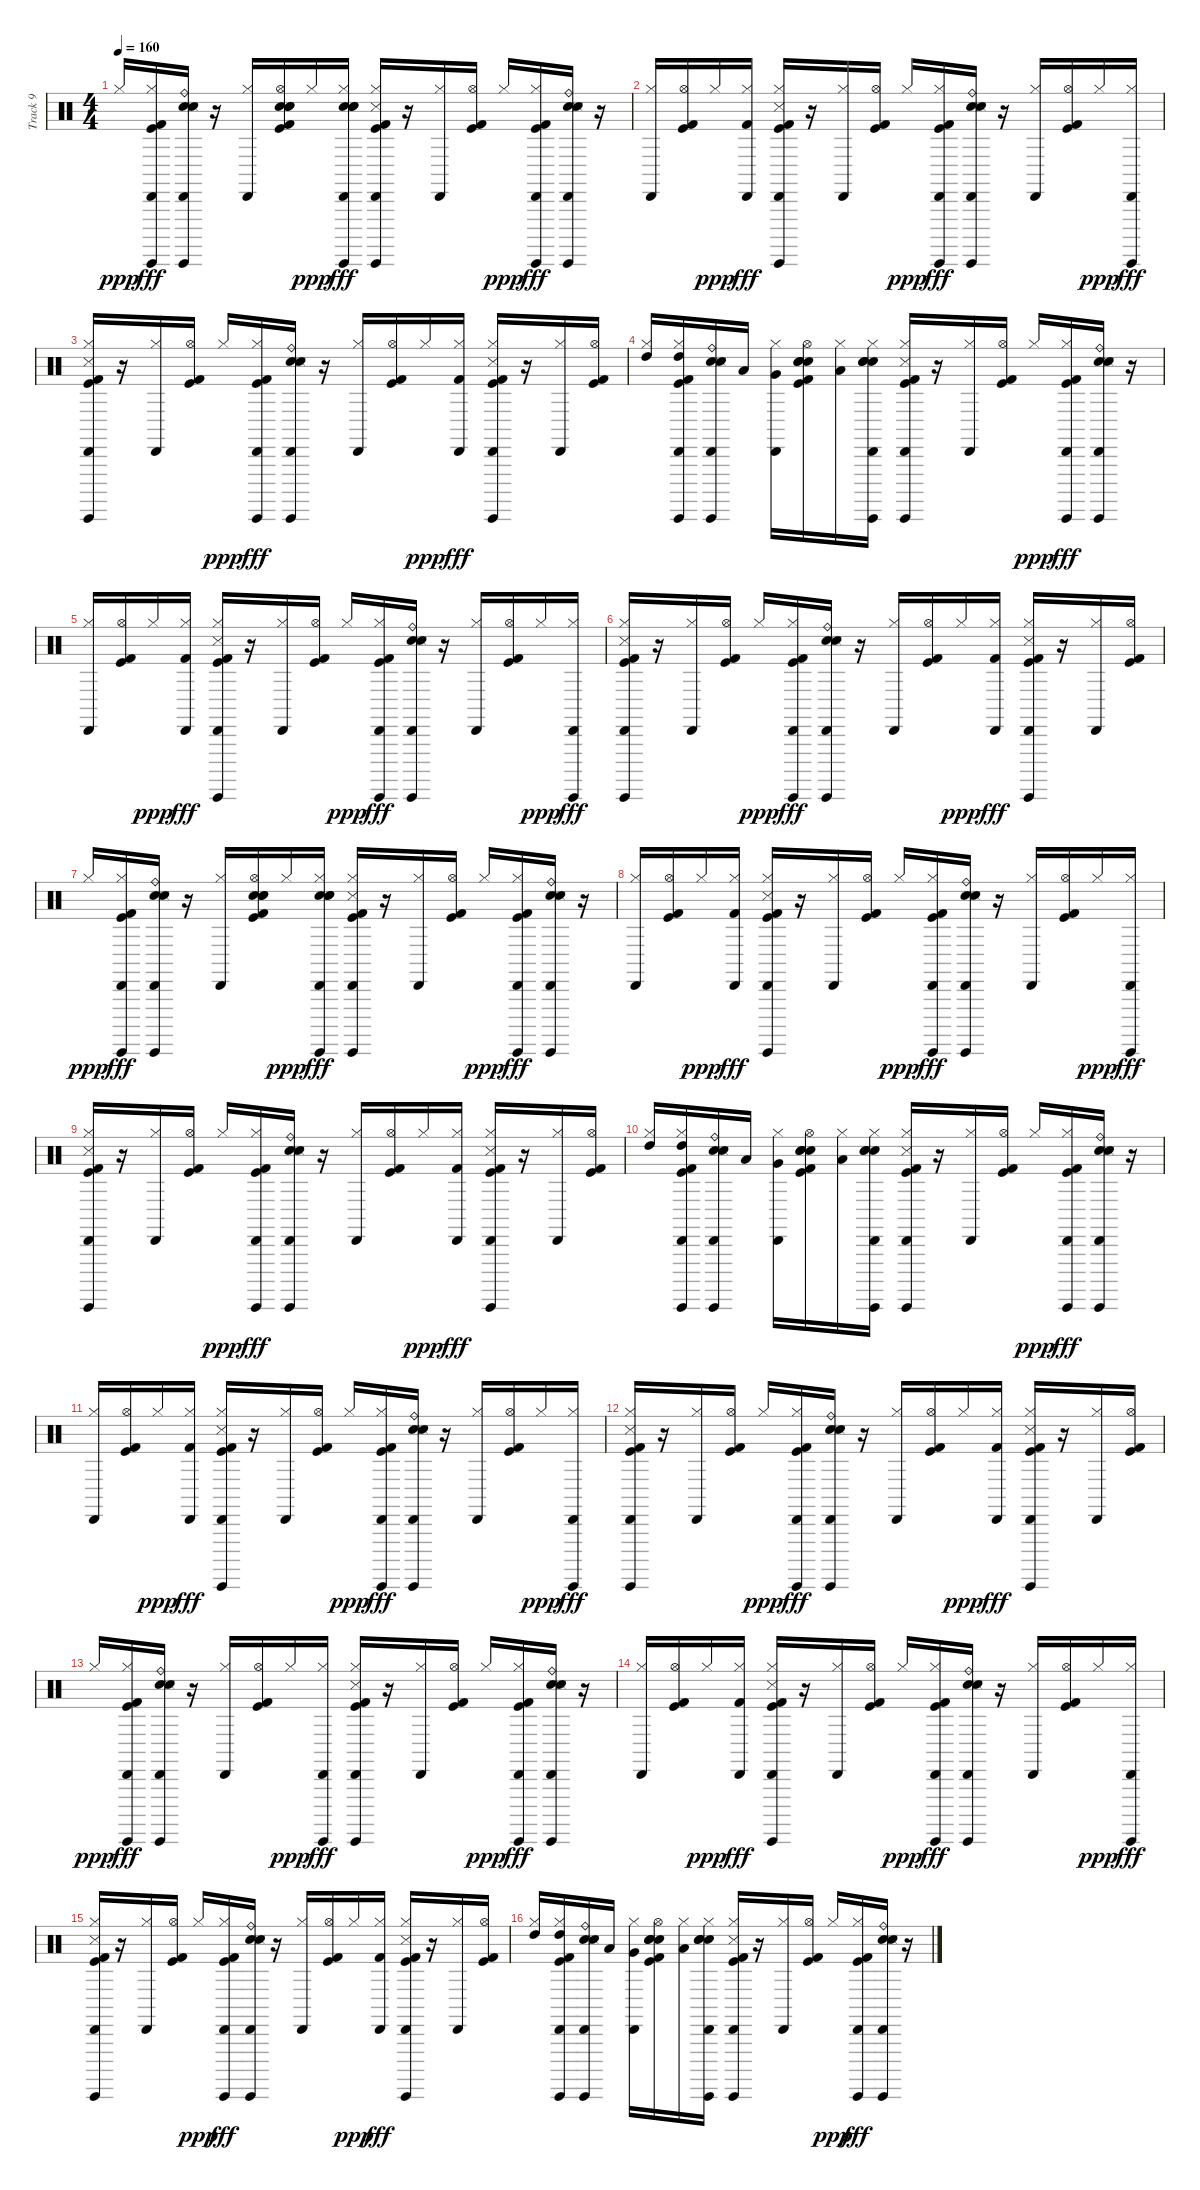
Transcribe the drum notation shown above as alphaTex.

\track ("Track 9" "Track 9") {instrument percussion}
\staff {score}
\articulation defaults
\ts (4 4)
\tempo 160
\clef neutral
\ks c "Hi-Hat (closed)".16{dy ppp}
("Hi-Hat (closed)" "Cabasa (hit)" "Kick (hit) 2" "Kick (hit)" "Guiro (hit)").16{dy fff} ("Electric Snare (hit)" "Snare (hit) 2" "Cabasa (hit)" "Snare (side stick) 3" "Ride (bell)" "Guiro (hit)").16 r.16 ("Hi-Hat (closed)" "Cabasa (hit)").16 ("Hi-Hat (open)" "Kick (hit) 2" "Kick (hit)" "Electric Snare (hit)" "Snare (hit) 2" "Hand Clap (hit)").16 "Hi-Hat (closed)".16{dy ppp} ("Hi-Hat (closed)" "Cabasa (hit)" "Guiro (hit)" "Electric Snare (hit)" "Snare (hit) 2" "Hand Clap (hit)").16{dy fff} ("Hi-Hat (closed)" "Cabasa (hit)" "Snare (side stick) 3" "Kick (hit) 2" "Kick (hit)" "Guiro (hit)").16 r.16 ("Hi-Hat (closed)" "Cabasa (hit)").16 ("Hi-Hat (open)" "Kick (hit) 2" "Kick (hit)").16 "Hi-Hat (closed)".16{dy ppp} ("Hi-Hat (closed)" "Cabasa (hit)" "Kick (hit) 2" "Kick (hit)" "Guiro (hit)").16{dy fff} ("Electric Snare (hit)" "Snare (hit) 2" "Cabasa (hit)" "Snare (side stick) 3" "Ride (bell)" "Guiro (hit)").16 r.16 |
("Hi-Hat (closed)" "Cabasa (hit)").16 ("Hi-Hat (open)" "Kick (hit) 2" "Kick (hit)").16 "Hi-Hat (closed)".16{dy ppp} ("Hi-Hat (closed)" "Cabasa (hit)" "Kick (hit) 2").16{dy fff} ("Kick (hit)" "Kick (hit) 2" "Hi-Hat (closed)" "Cabasa (hit)" "Snare (side stick) 3" "Guiro (hit)").16 r.16 ("Hi-Hat (closed)" "Cabasa (hit)").16 ("Hi-Hat (open)" "Kick (hit) 2" "Kick (hit)").16 "Hi-Hat (closed)".16{dy ppp} ("Hi-Hat (closed)" "Cabasa (hit)" "Kick (hit) 2" "Kick (hit)" "Guiro (hit)").16{dy fff} ("Electric Snare (hit)" "Snare (hit) 2" "Cabasa (hit)" "Snare (side stick) 3" "Ride (bell)" "Guiro (hit)").16 r.16 ("Hi-Hat (closed)" "Cabasa (hit)").16 ("Hi-Hat (open)" "Kick (hit) 2" "Kick (hit)").16 "Hi-Hat (closed)".16{dy ppp} ("Hi-Hat (closed)" "Cabasa (hit)" "Guiro (hit)").16{dy fff} |
("Hi-Hat (closed)" "Cabasa (hit)" "Snare (side stick) 3" "Kick (hit) 2" "Kick (hit)" "Guiro (hit)").16 r.16 ("Hi-Hat (closed)" "Cabasa (hit)").16 ("Hi-Hat (open)" "Kick (hit) 2" "Kick (hit)").16 "Hi-Hat (closed)".16{dy ppp} ("Hi-Hat (closed)" "Cabasa (hit)" "Kick (hit) 2" "Kick (hit)" "Guiro (hit)").16{dy fff} ("Electric Snare (hit)" "Snare (hit) 2" "Cabasa (hit)" "Snare (side stick) 3" "Ride (bell)" "Guiro (hit)").16 r.16 ("Hi-Hat (closed)" "Cabasa (hit)").16 ("Hi-Hat (open)" "Kick (hit) 2" "Kick (hit)").16 "Hi-Hat (closed)".16{dy ppp} ("Hi-Hat (closed)" "Cabasa (hit)" "Kick (hit) 2").16{dy fff} ("Kick (hit)" "Kick (hit) 2" "Hi-Hat (closed)" "Cabasa (hit)" "Snare (side stick) 3" "Guiro (hit)").16 r.16 ("Hi-Hat (closed)" "Cabasa (hit)").16 ("Hi-Hat (open)" "Kick (hit) 2" "Kick (hit)").16 |
("Hi-Hat (closed)" "High Tom (hit)").16 ("Hi-Hat (closed)" "Cabasa (hit)" "Kick (hit) 2" "Kick (hit)" "Guiro (hit)" "High Tom (hit)").16 ("Electric Snare (hit)" "Snare (hit) 2" "Cabasa (hit)" "Snare (side stick) 3" "Ride (bell)" "Guiro (hit)").16 "Low Tom (hit)".16 ("Hi-Hat (closed)" "Cabasa (hit)" "Very Low Tom (hit)").16 ("Hi-Hat (open)" "Kick (hit) 2" "Kick (hit)" "Electric Snare (hit)" "Snare (hit) 2" "Hand Clap (hit)").16 ("Hi-Hat (closed)" "Low Floor Tom (hit)").16 ("Hi-Hat (closed)" "Cabasa (hit)" "Guiro (hit)" "Electric Snare (hit)" "Snare (hit) 2" "Hand Clap (hit)").16 ("Hi-Hat (closed)" "Cabasa (hit)" "Snare (side stick) 3" "Kick (hit) 2" "Kick (hit)" "Guiro (hit)").16 r.16 ("Hi-Hat (closed)" "Cabasa (hit)").16 ("Hi-Hat (open)" "Kick (hit) 2" "Kick (hit)").16 "Hi-Hat (closed)".16{dy ppp} ("Hi-Hat (closed)" "Cabasa (hit)" "Kick (hit) 2" "Kick (hit)" "Guiro (hit)").16{dy fff} ("Electric Snare (hit)" "Snare (hit) 2" "Cabasa (hit)" "Snare (side stick) 3" "Ride (bell)" "Guiro (hit)").16 r.16 |
("Hi-Hat (closed)" "Cabasa (hit)").16 ("Hi-Hat (open)" "Kick (hit) 2" "Kick (hit)").16 "Hi-Hat (closed)".16{dy ppp} ("Hi-Hat (closed)" "Cabasa (hit)" "Kick (hit) 2").16{dy fff} ("Kick (hit)" "Kick (hit) 2" "Hi-Hat (closed)" "Cabasa (hit)" "Snare (side stick) 3" "Guiro (hit)").16 r.16 ("Hi-Hat (closed)" "Cabasa (hit)").16 ("Hi-Hat (open)" "Kick (hit) 2" "Kick (hit)").16 "Hi-Hat (closed)".16{dy ppp} ("Hi-Hat (closed)" "Cabasa (hit)" "Kick (hit) 2" "Kick (hit)" "Guiro (hit)").16{dy fff} ("Electric Snare (hit)" "Snare (hit) 2" "Cabasa (hit)" "Snare (side stick) 3" "Ride (bell)" "Guiro (hit)").16 r.16 ("Hi-Hat (closed)" "Cabasa (hit)").16 ("Hi-Hat (open)" "Kick (hit) 2" "Kick (hit)").16 "Hi-Hat (closed)".16{dy ppp} ("Hi-Hat (closed)" "Cabasa (hit)" "Guiro (hit)").16{dy fff} |
("Hi-Hat (closed)" "Cabasa (hit)" "Snare (side stick) 3" "Kick (hit) 2" "Kick (hit)" "Guiro (hit)").16 r.16 ("Hi-Hat (closed)" "Cabasa (hit)").16 ("Hi-Hat (open)" "Kick (hit) 2" "Kick (hit)").16 "Hi-Hat (closed)".16{dy ppp} ("Hi-Hat (closed)" "Cabasa (hit)" "Kick (hit) 2" "Kick (hit)" "Guiro (hit)").16{dy fff} ("Electric Snare (hit)" "Snare (hit) 2" "Cabasa (hit)" "Snare (side stick) 3" "Ride (bell)" "Guiro (hit)").16 r.16 ("Hi-Hat (closed)" "Cabasa (hit)").16 ("Hi-Hat (open)" "Kick (hit) 2" "Kick (hit)").16 "Hi-Hat (closed)".16{dy ppp} ("Hi-Hat (closed)" "Cabasa (hit)" "Kick (hit) 2").16{dy fff} ("Kick (hit)" "Kick (hit) 2" "Hi-Hat (closed)" "Cabasa (hit)" "Snare (side stick) 3" "Guiro (hit)").16 r.16 ("Hi-Hat (closed)" "Cabasa (hit)").16 ("Hi-Hat (open)" "Kick (hit) 2" "Kick (hit)").16 |
"Hi-Hat (closed)".16{dy ppp} ("Hi-Hat (closed)" "Cabasa (hit)" "Kick (hit) 2" "Kick (hit)" "Guiro (hit)").16{dy fff} ("Electric Snare (hit)" "Snare (hit) 2" "Cabasa (hit)" "Snare (side stick) 3" "Ride (bell)" "Guiro (hit)").16 r.16 ("Hi-Hat (closed)" "Cabasa (hit)").16 ("Hi-Hat (open)" "Kick (hit) 2" "Kick (hit)" "Electric Snare (hit)" "Snare (hit) 2" "Hand Clap (hit)").16 "Hi-Hat (closed)".16{dy ppp} ("Hi-Hat (closed)" "Cabasa (hit)" "Guiro (hit)" "Electric Snare (hit)" "Snare (hit) 2" "Hand Clap (hit)").16{dy fff} ("Hi-Hat (closed)" "Cabasa (hit)" "Snare (side stick) 3" "Kick (hit) 2" "Kick (hit)" "Guiro (hit)").16 r.16 ("Hi-Hat (closed)" "Cabasa (hit)").16 ("Hi-Hat (open)" "Kick (hit) 2" "Kick (hit)").16 "Hi-Hat (closed)".16{dy ppp} ("Hi-Hat (closed)" "Cabasa (hit)" "Kick (hit) 2" "Kick (hit)" "Guiro (hit)").16{dy fff} ("Electric Snare (hit)" "Snare (hit) 2" "Cabasa (hit)" "Snare (side stick) 3" "Ride (bell)" "Guiro (hit)").16 r.16 |
("Hi-Hat (closed)" "Cabasa (hit)").16 ("Hi-Hat (open)" "Kick (hit) 2" "Kick (hit)").16 "Hi-Hat (closed)".16{dy ppp} ("Hi-Hat (closed)" "Cabasa (hit)" "Kick (hit) 2").16{dy fff} ("Kick (hit)" "Kick (hit) 2" "Hi-Hat (closed)" "Cabasa (hit)" "Snare (side stick) 3" "Guiro (hit)").16 r.16 ("Hi-Hat (closed)" "Cabasa (hit)").16 ("Hi-Hat (open)" "Kick (hit) 2" "Kick (hit)").16 "Hi-Hat (closed)".16{dy ppp} ("Hi-Hat (closed)" "Cabasa (hit)" "Kick (hit) 2" "Kick (hit)" "Guiro (hit)").16{dy fff} ("Electric Snare (hit)" "Snare (hit) 2" "Cabasa (hit)" "Snare (side stick) 3" "Ride (bell)" "Guiro (hit)").16 r.16 ("Hi-Hat (closed)" "Cabasa (hit)").16 ("Hi-Hat (open)" "Kick (hit) 2" "Kick (hit)").16 "Hi-Hat (closed)".16{dy ppp} ("Hi-Hat (closed)" "Cabasa (hit)" "Guiro (hit)").16{dy fff} |
("Hi-Hat (closed)" "Cabasa (hit)" "Snare (side stick) 3" "Kick (hit) 2" "Kick (hit)" "Guiro (hit)").16 r.16 ("Hi-Hat (closed)" "Cabasa (hit)").16 ("Hi-Hat (open)" "Kick (hit) 2" "Kick (hit)").16 "Hi-Hat (closed)".16{dy ppp} ("Hi-Hat (closed)" "Cabasa (hit)" "Kick (hit) 2" "Kick (hit)" "Guiro (hit)").16{dy fff} ("Electric Snare (hit)" "Snare (hit) 2" "Cabasa (hit)" "Snare (side stick) 3" "Ride (bell)" "Guiro (hit)").16 r.16 ("Hi-Hat (closed)" "Cabasa (hit)").16 ("Hi-Hat (open)" "Kick (hit) 2" "Kick (hit)").16 "Hi-Hat (closed)".16{dy ppp} ("Hi-Hat (closed)" "Cabasa (hit)" "Kick (hit) 2").16{dy fff} ("Kick (hit)" "Kick (hit) 2" "Hi-Hat (closed)" "Cabasa (hit)" "Snare (side stick) 3" "Guiro (hit)").16 r.16 ("Hi-Hat (closed)" "Cabasa (hit)").16 ("Hi-Hat (open)" "Kick (hit) 2" "Kick (hit)").16 |
("Hi-Hat (closed)" "High Tom (hit)").16 ("Hi-Hat (closed)" "Cabasa (hit)" "Kick (hit) 2" "Kick (hit)" "Guiro (hit)" "High Tom (hit)").16 ("Electric Snare (hit)" "Snare (hit) 2" "Cabasa (hit)" "Snare (side stick) 3" "Ride (bell)" "Guiro (hit)").16 "Low Tom (hit)".16 ("Hi-Hat (closed)" "Cabasa (hit)" "Very Low Tom (hit)").16 ("Hi-Hat (open)" "Kick (hit) 2" "Kick (hit)" "Electric Snare (hit)" "Snare (hit) 2" "Hand Clap (hit)").16 ("Hi-Hat (closed)" "Low Floor Tom (hit)").16 ("Hi-Hat (closed)" "Cabasa (hit)" "Guiro (hit)" "Electric Snare (hit)" "Snare (hit) 2" "Hand Clap (hit)").16 ("Hi-Hat (closed)" "Cabasa (hit)" "Snare (side stick) 3" "Kick (hit) 2" "Kick (hit)" "Guiro (hit)").16 r.16 ("Hi-Hat (closed)" "Cabasa (hit)").16 ("Hi-Hat (open)" "Kick (hit) 2" "Kick (hit)").16 "Hi-Hat (closed)".16{dy ppp} ("Hi-Hat (closed)" "Cabasa (hit)" "Kick (hit) 2" "Kick (hit)" "Guiro (hit)").16{dy fff} ("Electric Snare (hit)" "Snare (hit) 2" "Cabasa (hit)" "Snare (side stick) 3" "Ride (bell)" "Guiro (hit)").16 r.16 |
("Hi-Hat (closed)" "Cabasa (hit)").16 ("Hi-Hat (open)" "Kick (hit) 2" "Kick (hit)").16 "Hi-Hat (closed)".16{dy ppp} ("Hi-Hat (closed)" "Cabasa (hit)" "Kick (hit) 2").16{dy fff} ("Kick (hit)" "Kick (hit) 2" "Hi-Hat (closed)" "Cabasa (hit)" "Snare (side stick) 3" "Guiro (hit)").16 r.16 ("Hi-Hat (closed)" "Cabasa (hit)").16 ("Hi-Hat (open)" "Kick (hit) 2" "Kick (hit)").16 "Hi-Hat (closed)".16{dy ppp} ("Hi-Hat (closed)" "Cabasa (hit)" "Kick (hit) 2" "Kick (hit)" "Guiro (hit)").16{dy fff} ("Electric Snare (hit)" "Snare (hit) 2" "Cabasa (hit)" "Snare (side stick) 3" "Ride (bell)" "Guiro (hit)").16 r.16 ("Hi-Hat (closed)" "Cabasa (hit)").16 ("Hi-Hat (open)" "Kick (hit) 2" "Kick (hit)").16 "Hi-Hat (closed)".16{dy ppp} ("Hi-Hat (closed)" "Cabasa (hit)" "Guiro (hit)").16{dy fff} |
("Hi-Hat (closed)" "Cabasa (hit)" "Snare (side stick) 3" "Kick (hit) 2" "Kick (hit)" "Guiro (hit)").16 r.16 ("Hi-Hat (closed)" "Cabasa (hit)").16 ("Hi-Hat (open)" "Kick (hit) 2" "Kick (hit)").16 "Hi-Hat (closed)".16{dy ppp} ("Hi-Hat (closed)" "Cabasa (hit)" "Kick (hit) 2" "Kick (hit)" "Guiro (hit)").16{dy fff} ("Electric Snare (hit)" "Snare (hit) 2" "Cabasa (hit)" "Snare (side stick) 3" "Ride (bell)" "Guiro (hit)").16 r.16 ("Hi-Hat (closed)" "Cabasa (hit)").16 ("Hi-Hat (open)" "Kick (hit) 2" "Kick (hit)").16 "Hi-Hat (closed)".16{dy ppp} ("Hi-Hat (closed)" "Cabasa (hit)" "Kick (hit) 2").16{dy fff} ("Kick (hit)" "Kick (hit) 2" "Hi-Hat (closed)" "Cabasa (hit)" "Snare (side stick) 3" "Guiro (hit)").16 r.16 ("Hi-Hat (closed)" "Cabasa (hit)").16 ("Hi-Hat (open)" "Kick (hit) 2" "Kick (hit)").16 |
"Hi-Hat (closed)".16{dy ppp} ("Hi-Hat (closed)" "Cabasa (hit)" "Kick (hit) 2" "Kick (hit)" "Guiro (hit)").16{dy fff} ("Electric Snare (hit)" "Snare (hit) 2" "Cabasa (hit)" "Snare (side stick) 3" "Ride (bell)" "Guiro (hit)").16 r.16 ("Hi-Hat (closed)" "Cabasa (hit)").16 ("Hi-Hat (open)" "Kick (hit) 2" "Kick (hit)").16 "Hi-Hat (closed)".16{dy ppp} ("Hi-Hat (closed)" "Cabasa (hit)" "Guiro (hit)").16{dy fff} ("Hi-Hat (closed)" "Cabasa (hit)" "Snare (side stick) 3" "Kick (hit) 2" "Kick (hit)" "Guiro (hit)").16 r.16 ("Hi-Hat (closed)" "Cabasa (hit)").16 ("Hi-Hat (open)" "Kick (hit) 2" "Kick (hit)").16 "Hi-Hat (closed)".16{dy ppp} ("Hi-Hat (closed)" "Cabasa (hit)" "Kick (hit) 2" "Kick (hit)" "Guiro (hit)").16{dy fff} ("Electric Snare (hit)" "Snare (hit) 2" "Cabasa (hit)" "Snare (side stick) 3" "Ride (bell)" "Guiro (hit)").16 r.16 |
("Hi-Hat (closed)" "Cabasa (hit)").16 ("Hi-Hat (open)" "Kick (hit) 2" "Kick (hit)").16 "Hi-Hat (closed)".16{dy ppp} ("Hi-Hat (closed)" "Cabasa (hit)" "Kick (hit) 2").16{dy fff} ("Kick (hit)" "Kick (hit) 2" "Hi-Hat (closed)" "Cabasa (hit)" "Snare (side stick) 3" "Guiro (hit)").16 r.16 ("Hi-Hat (closed)" "Cabasa (hit)").16 ("Hi-Hat (open)" "Kick (hit) 2" "Kick (hit)").16 "Hi-Hat (closed)".16{dy ppp} ("Hi-Hat (closed)" "Cabasa (hit)" "Kick (hit) 2" "Kick (hit)" "Guiro (hit)").16{dy fff} ("Electric Snare (hit)" "Snare (hit) 2" "Cabasa (hit)" "Snare (side stick) 3" "Ride (bell)" "Guiro (hit)").16 r.16 ("Hi-Hat (closed)" "Cabasa (hit)").16 ("Hi-Hat (open)" "Kick (hit) 2" "Kick (hit)").16 "Hi-Hat (closed)".16{dy ppp} ("Hi-Hat (closed)" "Cabasa (hit)" "Guiro (hit)").16{dy fff} |
("Hi-Hat (closed)" "Cabasa (hit)" "Snare (side stick) 3" "Kick (hit) 2" "Kick (hit)" "Guiro (hit)").16 r.16 ("Hi-Hat (closed)" "Cabasa (hit)").16 ("Hi-Hat (open)" "Kick (hit) 2" "Kick (hit)").16 "Hi-Hat (closed)".16{dy ppp} ("Hi-Hat (closed)" "Cabasa (hit)" "Kick (hit) 2" "Kick (hit)" "Guiro (hit)").16{dy fff} ("Electric Snare (hit)" "Snare (hit) 2" "Cabasa (hit)" "Snare (side stick) 3" "Ride (bell)" "Guiro (hit)").16 r.16 ("Hi-Hat (closed)" "Cabasa (hit)").16 ("Hi-Hat (open)" "Kick (hit) 2" "Kick (hit)").16 "Hi-Hat (closed)".16{dy ppp} ("Hi-Hat (closed)" "Cabasa (hit)" "Kick (hit) 2").16{dy fff} ("Kick (hit)" "Kick (hit) 2" "Hi-Hat (closed)" "Cabasa (hit)" "Snare (side stick) 3" "Guiro (hit)").16 r.16 ("Hi-Hat (closed)" "Cabasa (hit)").16 ("Hi-Hat (open)" "Kick (hit) 2" "Kick (hit)").16 |
("Hi-Hat (closed)" "High Tom (hit)").16 ("Hi-Hat (closed)" "Cabasa (hit)" "Kick (hit) 2" "Kick (hit)" "Guiro (hit)" "High Tom (hit)").16 ("Electric Snare (hit)" "Snare (hit) 2" "Cabasa (hit)" "Snare (side stick) 3" "Ride (bell)" "Guiro (hit)").16 "Low Tom (hit)".16 ("Hi-Hat (closed)" "Cabasa (hit)" "Very Low Tom (hit)").16 ("Hi-Hat (open)" "Kick (hit) 2" "Kick (hit)" "Electric Snare (hit)" "Snare (hit) 2" "Hand Clap (hit)").16 ("Hi-Hat (closed)" "Low Floor Tom (hit)").16 ("Hi-Hat (closed)" "Cabasa (hit)" "Guiro (hit)" "Electric Snare (hit)" "Snare (hit) 2" "Hand Clap (hit)").16 ("Hi-Hat (closed)" "Cabasa (hit)" "Snare (side stick) 3" "Kick (hit) 2" "Kick (hit)" "Guiro (hit)").16 r.16 ("Hi-Hat (closed)" "Cabasa (hit)").16 ("Hi-Hat (open)" "Kick (hit) 2" "Kick (hit)").16 "Hi-Hat (closed)".16{dy ppp} ("Hi-Hat (closed)" "Cabasa (hit)" "Kick (hit) 2" "Kick (hit)" "Guiro (hit)").16{dy fff} ("Electric Snare (hit)" "Snare (hit) 2" "Cabasa (hit)" "Snare (side stick) 3" "Ride (bell)" "Guiro (hit)").16 r.16
